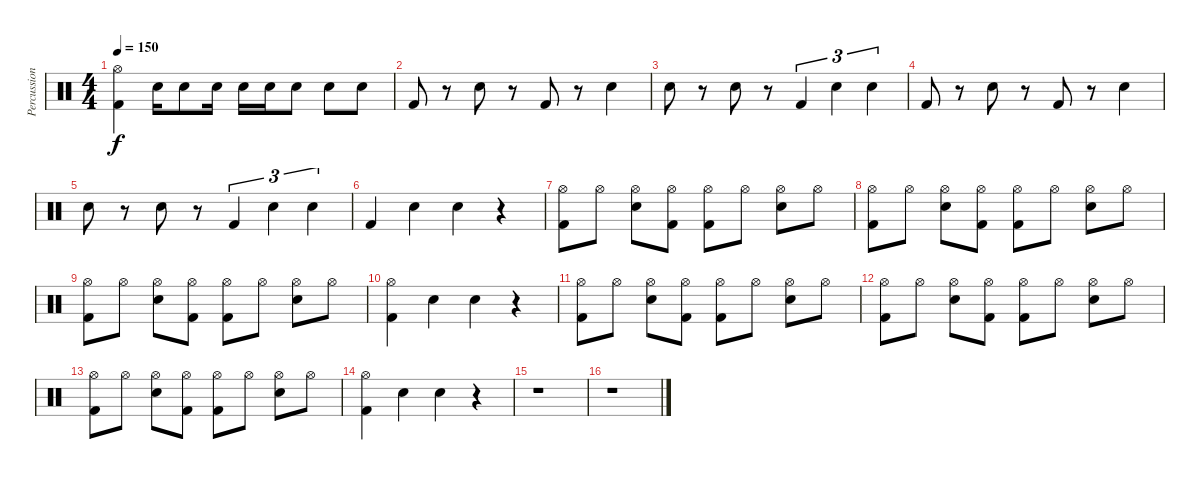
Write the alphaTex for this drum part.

\track ("Percussion" "Percussion") {instrument percussion}
\staff {score}
\articulation defaults
\ts (4 4)
\tempo 150
\clef neutral
\ks c
("Hi-Hat (open)" "Kick (hit) 2").4{dy f} "Snare (hit) 2".16 "Snare (hit) 2".8 "Snare (hit) 2".16 "Snare (hit) 2".16 "Snare (hit) 2".16 "Snare (hit) 2".8 "Snare (hit) 2".8 "Snare (hit) 2".8 |
"Kick (hit) 2".8 r.8 "Snare (hit) 2".8 r.8 "Kick (hit) 2".8 r.8 "Snare (hit) 2".4 |
"Snare (hit) 2".8 r.8 "Snare (hit) 2".8 r.8 "Kick (hit) 2".4{tu (3 2)} "Snare (hit) 2".4{tu (3 2)} "Snare (hit) 2".4{tu (3 2)} |
"Kick (hit) 2".8 r.8 "Snare (hit) 2".8 r.8 "Kick (hit) 2".8 r.8 "Snare (hit) 2".4 |
"Snare (hit) 2".8 r.8 "Snare (hit) 2".8 r.8 "Kick (hit) 2".4{tu (3 2)} "Snare (hit) 2".4{tu (3 2)} "Snare (hit) 2".4{tu (3 2)} |
"Kick (hit) 2".4 "Snare (hit) 2".4 "Snare (hit) 2".4 r.4 |
("Hi-Hat (open)" "Kick (hit) 2").8 "Hi-Hat (open)".8 ("Hi-Hat (open)" "Snare (hit) 2").8 ("Hi-Hat (open)" "Kick (hit) 2").8 ("Hi-Hat (open)" "Kick (hit) 2").8 "Hi-Hat (open)".8 ("Hi-Hat (open)" "Snare (hit) 2").8 "Hi-Hat (open)".8 |
("Hi-Hat (open)" "Kick (hit) 2").8 "Hi-Hat (open)".8 ("Hi-Hat (open)" "Snare (hit) 2").8 ("Hi-Hat (open)" "Kick (hit) 2").8 ("Hi-Hat (open)" "Kick (hit) 2").8 "Hi-Hat (open)".8 ("Hi-Hat (open)" "Snare (hit) 2").8 "Hi-Hat (open)".8 |
("Hi-Hat (open)" "Kick (hit) 2").8 "Hi-Hat (open)".8 ("Hi-Hat (open)" "Snare (hit) 2").8 ("Hi-Hat (open)" "Kick (hit) 2").8 ("Hi-Hat (open)" "Kick (hit) 2").8 "Hi-Hat (open)".8 ("Hi-Hat (open)" "Snare (hit) 2").8 "Hi-Hat (open)".8 |
("Hi-Hat (open)" "Kick (hit) 2").4 "Snare (hit) 2".4 "Snare (hit) 2".4 r.4 |
("Hi-Hat (open)" "Kick (hit) 2").8 "Hi-Hat (open)".8 ("Hi-Hat (open)" "Snare (hit) 2").8 ("Hi-Hat (open)" "Kick (hit) 2").8 ("Hi-Hat (open)" "Kick (hit) 2").8 "Hi-Hat (open)".8 ("Hi-Hat (open)" "Snare (hit) 2").8 "Hi-Hat (open)".8 |
("Hi-Hat (open)" "Kick (hit) 2").8 "Hi-Hat (open)".8 ("Hi-Hat (open)" "Snare (hit) 2").8 ("Hi-Hat (open)" "Kick (hit) 2").8 ("Hi-Hat (open)" "Kick (hit) 2").8 "Hi-Hat (open)".8 ("Hi-Hat (open)" "Snare (hit) 2").8 "Hi-Hat (open)".8 |
("Hi-Hat (open)" "Kick (hit) 2").8 "Hi-Hat (open)".8 ("Hi-Hat (open)" "Snare (hit) 2").8 ("Hi-Hat (open)" "Kick (hit) 2").8 ("Hi-Hat (open)" "Kick (hit) 2").8 "Hi-Hat (open)".8 ("Hi-Hat (open)" "Snare (hit) 2").8 "Hi-Hat (open)".8 |
("Hi-Hat (open)" "Kick (hit) 2").4 "Snare (hit) 2".4 "Snare (hit) 2".4 r.4 |
r.1 |
r.1
